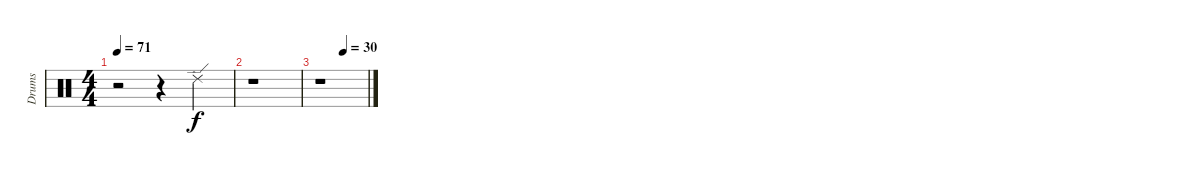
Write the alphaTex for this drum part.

\track ("Drums" "Drums") {instrument percussion}
\staff {score}
\articulation defaults
\ts (4 4)
\tempo 71
\clef neutral
\ks c
r.2{dy f} r.4 "Ride (edge) 2".4 |
r.1 |
\tempo (30 0.5)
r.1
